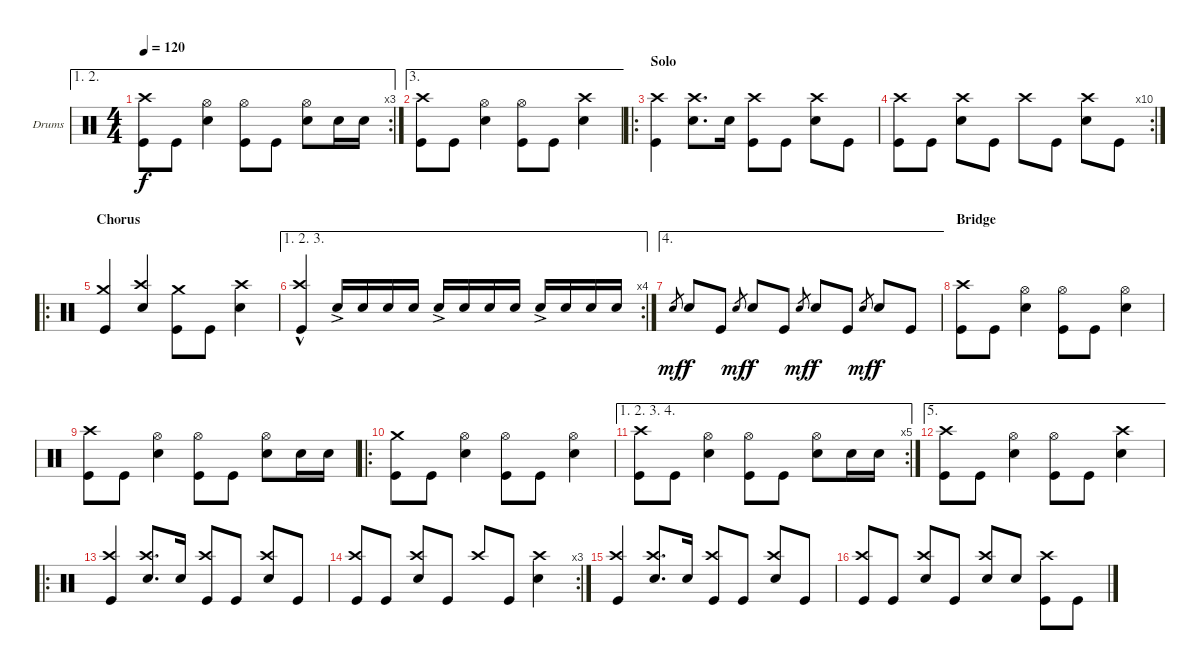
\defaultSystemsLayout 4
\bracketExtendMode groupsimilarinstruments
\firstSystemTrackNameOrientation horizontal
\otherSystemsTrackNameOrientation horizontal
\track ("Drumkit" "Drums") {mute instrument percussion}
\staff {score}
\articulation defaults
\ae (1 2)
\rc 3
\ts (4 4)
\tempo 120
\clef neutral
\ks c
("Kick (hit)" "Crash high (hit)").8{dy f} "Kick (hit)".8 ("Hi-Hat (open)" "Snare (hit) 2").4 ("Hi-Hat (open)" "Kick (hit)").8 "Kick (hit)".8 ("Hi-Hat (open)" "Snare (hit) 2").8 "Snare (hit) 2".16 "Snare (hit) 2".16 |
\ae 3
("Kick (hit)" "Crash high (hit)").8 "Kick (hit)".8 ("Hi-Hat (open)" "Snare (hit) 2").4 ("Hi-Hat (open)" "Kick (hit)").8 "Kick (hit)".8 ("Snare (hit) 2" "Crash high (hit)").4 |
\ro
\section ("" "Solo")
("Kick (hit)" "Crash high (hit)").4 ("Snare (hit) 2" "Crash high (hit)").8{d} "Snare (hit) 2".16 ("Kick (hit)" "Crash high (hit)").8 "Kick (hit)".8 ("Snare (hit) 2" "Crash high (hit)").8 "Kick (hit)".8 |
\rc 10
("Kick (hit)" "Crash high (hit)").8 "Kick (hit)".8 ("Snare (hit) 2" "Crash high (hit)").8 "Kick (hit)".8 "Crash high (hit)".8 "Kick (hit)".8 ("Snare (hit) 2" "Crash high (hit)").8 "Kick (hit)".8 |
\ro
\section ("" "Chorus")
("Crash medium (hit)" "Kick (hit)").4 ("Snare (hit) 2" "Crash high (hit)").4{beam invert} ("Crash medium (hit)" "Kick (hit)").8 "Kick (hit)".8 ("Snare (hit) 2" "Crash high (hit)").4 |
\ae (1 2 3)
\rc 4
("Kick (hit)" "Crash high (hit)"{hac}).4 "Snare (hit) 2"{ac}.16{beam invert} "Snare (hit) 2".16 "Snare (hit) 2".16 "Snare (hit) 2".16 "Snare (hit) 2"{ac}.16{beam invert} "Snare (hit) 2".16 "Snare (hit) 2".16 "Snare (hit) 2".16 "Snare (hit) 2"{ac}.16{beam invert} "Snare (hit) 2".16 "Snare (hit) 2".16 "Snare (hit) 2".16 |
\ae 4 "Snare (hit) 2".8{gr dy mf} "Snare (hit) 2".8{dy f} "Kick (hit)".8 "Snare (hit) 2".8{gr dy mf} "Snare (hit) 2".8{dy f} "Kick (hit)".8 "Snare (hit) 2".8{gr dy mf} "Snare (hit) 2".8{dy f} "Kick (hit)".8 "Snare (hit) 2".8{gr dy mf} "Snare (hit) 2".8{dy f} "Kick (hit)".8
|
\section ("" "Bridge")
("Kick (hit)" "Crash high (hit)").8 "Kick (hit)".8 ("Hi-Hat (open)" "Snare (hit) 2").4 ("Hi-Hat (open)" "Kick (hit)").8 "Kick (hit)".8 ("Hi-Hat (open)" "Snare (hit) 2").4 |
("Kick (hit)" "Crash high (hit)").8 "Kick (hit)".8 ("Hi-Hat (open)" "Snare (hit) 2").4 ("Hi-Hat (open)" "Kick (hit)").8 "Kick (hit)".8 ("Hi-Hat (open)" "Snare (hit) 2").8 "Snare (hit) 2".16 "Snare (hit) 2".16 |
\ro
("Kick (hit)" "Crash medium (hit)").8 "Kick (hit)".8 ("Hi-Hat (open)" "Snare (hit) 2").4 ("Hi-Hat (open)" "Kick (hit)").8 "Kick (hit)".8 ("Hi-Hat (open)" "Snare (hit) 2").4 |
\ae (1 2 3 4)
\rc 5
("Kick (hit)" "Crash high (hit)").8 "Kick (hit)".8 ("Hi-Hat (open)" "Snare (hit) 2").4 ("Hi-Hat (open)" "Kick (hit)").8 "Kick (hit)".8 ("Hi-Hat (open)" "Snare (hit) 2").8 "Snare (hit) 2".16 "Snare (hit) 2".16 |
\ae 5
("Kick (hit)" "Crash high (hit)").8 "Kick (hit)".8 ("Hi-Hat (open)" "Snare (hit) 2").4 ("Hi-Hat (open)" "Kick (hit)").8 "Kick (hit)".8 ("Snare (hit) 2" "Crash high (hit)").4 |
\ro
("Kick (hit)" "Crash high (hit)").4 ("Snare (hit) 2" "Crash high (hit)").8{d beam invert} "Snare (hit) 2".16 ("Kick (hit)" "Crash high (hit)").8 "Kick (hit)".8 ("Snare (hit) 2" "Crash high (hit)").8{beam invert} "Kick (hit)".8 |
\rc 3
("Kick (hit)" "Crash high (hit)").8 "Kick (hit)".8 ("Snare (hit) 2" "Crash high (hit)").8{beam invert} "Kick (hit)".8 "Crash high (hit)".8{beam invert} "Kick (hit)".8 ("Snare (hit) 2" "Crash high (hit)").4 |
("Kick (hit)" "Crash high (hit)").4 ("Snare (hit) 2" "Crash high (hit)").8{d beam invert} "Snare (hit) 2".16 ("Kick (hit)" "Crash high (hit)").8 "Kick (hit)".8 ("Snare (hit) 2" "Crash high (hit)").8{beam invert} "Kick (hit)".8 |
("Kick (hit)" "Crash high (hit)").8 "Kick (hit)".8 ("Snare (hit) 2" "Crash high (hit)").8{beam invert} "Kick (hit)".8 ("Snare (hit) 2" "Crash high (hit)").8{beam invert} "Snare (hit) 2".8 ("Kick (hit)" "Crash high (hit)").8 "Kick (hit)".8
